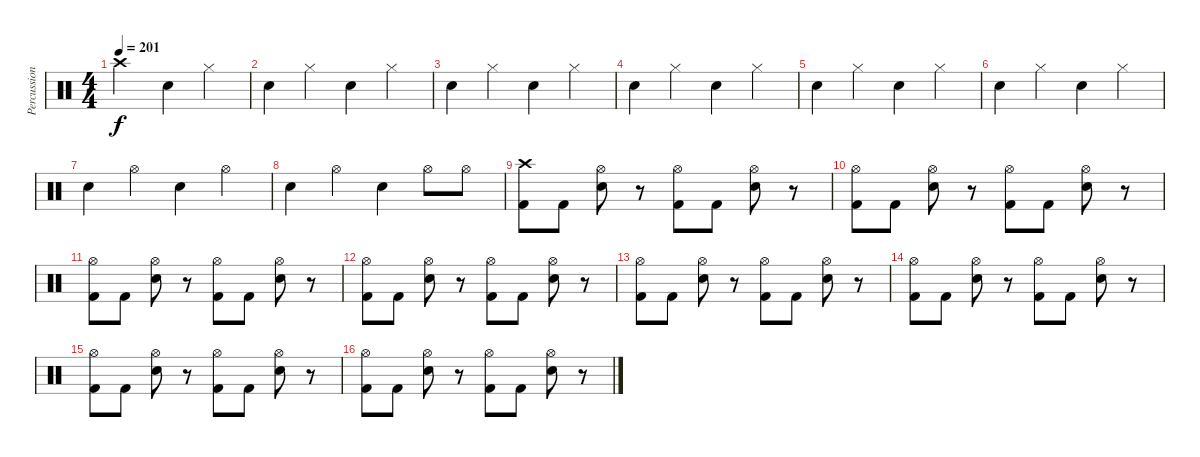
\track ("Percussion" "Percussion") {instrument percussion}
\staff {score}
\articulation defaults
\ts (4 4)
\tempo 201
\clef neutral
\ks c "Crash high (hit)".2{dy f volume 9} "Electric Snare (hit)".4 "Hi-Hat (closed)".4
|
"Electric Snare (hit)".4 "Hi-Hat (closed)".4 "Electric Snare (hit)".4 "Hi-Hat (closed)".4 |
"Electric Snare (hit)".4 "Hi-Hat (closed)".4 "Electric Snare (hit)".4 "Hi-Hat (closed)".4 |
"Electric Snare (hit)".4 "Hi-Hat (closed)".4 "Electric Snare (hit)".4 "Hi-Hat (closed)".4 |
"Electric Snare (hit)".4 "Hi-Hat (closed)".4 "Electric Snare (hit)".4 "Hi-Hat (closed)".4 |
"Electric Snare (hit)".4 "Hi-Hat (closed)".4 "Electric Snare (hit)".4 "Hi-Hat (closed)".4 |
"Electric Snare (hit)".4 "Hi-Hat (open)".4 "Electric Snare (hit)".4 "Hi-Hat (open)".4 |
"Electric Snare (hit)".4 "Hi-Hat (open)".4 "Electric Snare (hit)".4 "Hi-Hat (open)".8 "Hi-Hat (open)".8 |
("Crash high (hit)" "Kick (hit) 2").8{volume 13} "Kick (hit) 2".8 ("Hi-Hat (open)" "Electric Snare (hit)").8 r.8 ("Hi-Hat (open)" "Kick (hit) 2").8 "Kick (hit) 2".8 ("Hi-Hat (open)" "Electric Snare (hit)").8 r.8 |
("Hi-Hat (open)" "Kick (hit) 2").8 "Kick (hit) 2".8 ("Hi-Hat (open)" "Electric Snare (hit)").8 r.8 ("Hi-Hat (open)" "Kick (hit) 2").8 "Kick (hit) 2".8 ("Hi-Hat (open)" "Electric Snare (hit)").8 r.8 |
("Hi-Hat (open)" "Kick (hit) 2").8 "Kick (hit) 2".8 ("Hi-Hat (open)" "Electric Snare (hit)").8 r.8 ("Hi-Hat (open)" "Kick (hit) 2").8 "Kick (hit) 2".8 ("Hi-Hat (open)" "Electric Snare (hit)").8 r.8 |
("Hi-Hat (open)" "Kick (hit) 2").8 "Kick (hit) 2".8 ("Hi-Hat (open)" "Electric Snare (hit)").8 r.8 ("Hi-Hat (open)" "Kick (hit) 2").8 "Kick (hit) 2".8 ("Hi-Hat (open)" "Electric Snare (hit)").8 r.8 |
("Hi-Hat (open)" "Kick (hit) 2").8 "Kick (hit) 2".8 ("Hi-Hat (open)" "Electric Snare (hit)").8 r.8 ("Hi-Hat (open)" "Kick (hit) 2").8 "Kick (hit) 2".8 ("Hi-Hat (open)" "Electric Snare (hit)").8 r.8 |
("Hi-Hat (open)" "Kick (hit) 2").8 "Kick (hit) 2".8 ("Hi-Hat (open)" "Electric Snare (hit)").8 r.8 ("Hi-Hat (open)" "Kick (hit) 2").8 "Kick (hit) 2".8 ("Hi-Hat (open)" "Electric Snare (hit)").8 r.8 |
("Hi-Hat (open)" "Kick (hit) 2").8 "Kick (hit) 2".8 ("Hi-Hat (open)" "Electric Snare (hit)").8 r.8 ("Hi-Hat (open)" "Kick (hit) 2").8 "Kick (hit) 2".8 ("Hi-Hat (open)" "Electric Snare (hit)").8 r.8 |
("Hi-Hat (open)" "Kick (hit) 2").8 "Kick (hit) 2".8 ("Hi-Hat (open)" "Electric Snare (hit)").8 r.8 ("Hi-Hat (open)" "Kick (hit) 2").8 "Kick (hit) 2".8 ("Hi-Hat (open)" "Electric Snare (hit)").8 r.8
